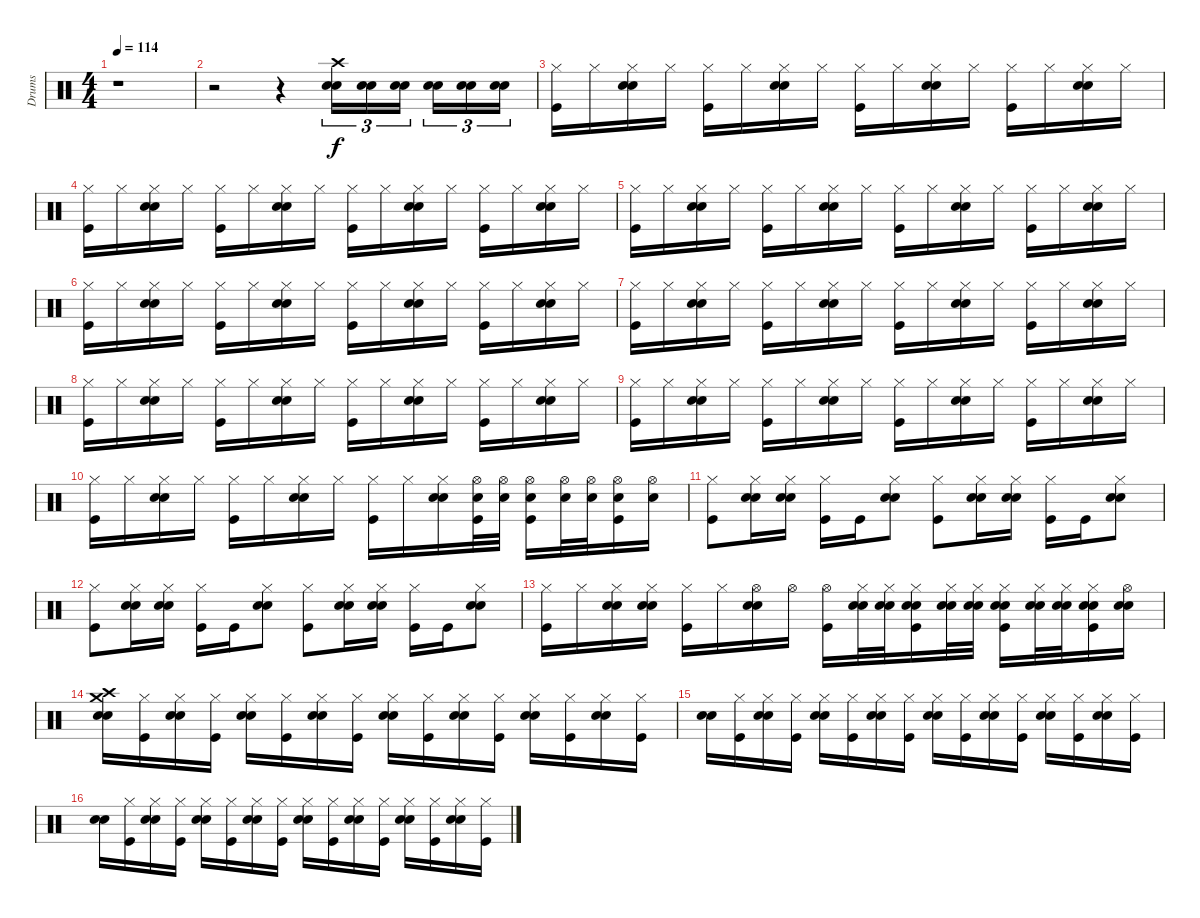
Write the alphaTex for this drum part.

\track ("Drums" "Drums") {instrument percussion}
\staff {score}
\articulation defaults
\ts (4 4)
\tempo 114
\clef neutral
\ks c
r.1{dy f} |
r.2 r.4 ("Crash high (hit)" "Electric Snare (hit)" "Snare (hit) 2").16{tu (3 2)} ("Electric Snare (hit)" "Snare (hit) 2").16{tu (3 2)} ("Electric Snare (hit)" "Snare (hit) 2").16{tu (3 2)} ("Electric Snare (hit)" "Snare (hit) 2").16{tu (3 2)} ("Electric Snare (hit)" "Snare (hit) 2").16{tu (3 2)} ("Electric Snare (hit)" "Snare (hit) 2").16{tu (3 2)} |
("Hi-Hat (closed)" "Kick (hit)").16 "Hi-Hat (closed)".16 ("Electric Snare (hit)" "Snare (hit) 2" "Hi-Hat (closed)").16 "Hi-Hat (closed)".16 ("Hi-Hat (closed)" "Kick (hit)").16 "Hi-Hat (closed)".16 ("Electric Snare (hit)" "Snare (hit) 2" "Hi-Hat (closed)").16 "Hi-Hat (closed)".16 ("Hi-Hat (closed)" "Kick (hit)").16 "Hi-Hat (closed)".16 ("Electric Snare (hit)" "Snare (hit) 2" "Hi-Hat (closed)").16 "Hi-Hat (closed)".16 ("Hi-Hat (closed)" "Kick (hit)").16 "Hi-Hat (closed)".16 ("Electric Snare (hit)" "Snare (hit) 2" "Hi-Hat (closed)").16 "Hi-Hat (closed)".16 |
("Hi-Hat (closed)" "Kick (hit)").16 "Hi-Hat (closed)".16 ("Electric Snare (hit)" "Snare (hit) 2" "Hi-Hat (closed)").16 "Hi-Hat (closed)".16 ("Hi-Hat (closed)" "Kick (hit)").16 "Hi-Hat (closed)".16 ("Electric Snare (hit)" "Snare (hit) 2" "Hi-Hat (closed)").16 "Hi-Hat (closed)".16 ("Hi-Hat (closed)" "Kick (hit)").16 "Hi-Hat (closed)".16 ("Electric Snare (hit)" "Snare (hit) 2" "Hi-Hat (closed)").16 "Hi-Hat (closed)".16 ("Hi-Hat (closed)" "Kick (hit)").16 "Hi-Hat (closed)".16 ("Electric Snare (hit)" "Snare (hit) 2" "Hi-Hat (closed)").16 "Hi-Hat (closed)".16 |
("Hi-Hat (closed)" "Kick (hit)").16 "Hi-Hat (closed)".16 ("Electric Snare (hit)" "Snare (hit) 2" "Hi-Hat (closed)").16 "Hi-Hat (closed)".16 ("Hi-Hat (closed)" "Kick (hit)").16 "Hi-Hat (closed)".16 ("Electric Snare (hit)" "Snare (hit) 2" "Hi-Hat (closed)").16 "Hi-Hat (closed)".16 ("Hi-Hat (closed)" "Kick (hit)").16 "Hi-Hat (closed)".16 ("Electric Snare (hit)" "Snare (hit) 2" "Hi-Hat (closed)").16 "Hi-Hat (closed)".16 ("Hi-Hat (closed)" "Kick (hit)").16 "Hi-Hat (closed)".16 ("Electric Snare (hit)" "Snare (hit) 2" "Hi-Hat (closed)").16 "Hi-Hat (closed)".16 |
("Hi-Hat (closed)" "Kick (hit)").16 "Hi-Hat (closed)".16 ("Electric Snare (hit)" "Snare (hit) 2" "Hi-Hat (closed)").16 "Hi-Hat (closed)".16 ("Hi-Hat (closed)" "Kick (hit)").16 "Hi-Hat (closed)".16 ("Electric Snare (hit)" "Snare (hit) 2" "Hi-Hat (closed)").16 "Hi-Hat (closed)".16 ("Hi-Hat (closed)" "Kick (hit)").16 "Hi-Hat (closed)".16 ("Electric Snare (hit)" "Snare (hit) 2" "Hi-Hat (closed)").16 "Hi-Hat (closed)".16 ("Hi-Hat (closed)" "Kick (hit)").16 "Hi-Hat (closed)".16 ("Electric Snare (hit)" "Snare (hit) 2" "Hi-Hat (closed)").16 "Hi-Hat (closed)".16 |
("Hi-Hat (closed)" "Kick (hit)").16 "Hi-Hat (closed)".16 ("Electric Snare (hit)" "Snare (hit) 2" "Hi-Hat (closed)").16 "Hi-Hat (closed)".16 ("Hi-Hat (closed)" "Kick (hit)").16 "Hi-Hat (closed)".16 ("Electric Snare (hit)" "Snare (hit) 2" "Hi-Hat (closed)").16 "Hi-Hat (closed)".16 ("Hi-Hat (closed)" "Kick (hit)").16 "Hi-Hat (closed)".16 ("Electric Snare (hit)" "Snare (hit) 2" "Hi-Hat (closed)").16 "Hi-Hat (closed)".16 ("Hi-Hat (closed)" "Kick (hit)").16 "Hi-Hat (closed)".16 ("Electric Snare (hit)" "Snare (hit) 2" "Hi-Hat (closed)").16 "Hi-Hat (closed)".16 |
("Hi-Hat (closed)" "Kick (hit)").16 "Hi-Hat (closed)".16 ("Electric Snare (hit)" "Snare (hit) 2" "Hi-Hat (closed)").16 "Hi-Hat (closed)".16 ("Hi-Hat (closed)" "Kick (hit)").16 "Hi-Hat (closed)".16 ("Electric Snare (hit)" "Snare (hit) 2" "Hi-Hat (closed)").16 "Hi-Hat (closed)".16 ("Hi-Hat (closed)" "Kick (hit)").16 "Hi-Hat (closed)".16 ("Electric Snare (hit)" "Snare (hit) 2" "Hi-Hat (closed)").16 "Hi-Hat (closed)".16 ("Hi-Hat (closed)" "Kick (hit)").16 "Hi-Hat (closed)".16 ("Electric Snare (hit)" "Snare (hit) 2" "Hi-Hat (closed)").16 "Hi-Hat (closed)".16 |
("Hi-Hat (closed)" "Kick (hit)").16 "Hi-Hat (closed)".16 ("Electric Snare (hit)" "Snare (hit) 2" "Hi-Hat (closed)").16 "Hi-Hat (closed)".16 ("Hi-Hat (closed)" "Kick (hit)").16 "Hi-Hat (closed)".16 ("Electric Snare (hit)" "Snare (hit) 2" "Hi-Hat (closed)").16 "Hi-Hat (closed)".16 ("Hi-Hat (closed)" "Kick (hit)").16 "Hi-Hat (closed)".16 ("Electric Snare (hit)" "Snare (hit) 2" "Hi-Hat (closed)").16 "Hi-Hat (closed)".16 ("Hi-Hat (closed)" "Kick (hit)").16 "Hi-Hat (closed)".16 ("Electric Snare (hit)" "Snare (hit) 2" "Hi-Hat (closed)").16 "Hi-Hat (closed)".16 |
("Hi-Hat (closed)" "Kick (hit)").16 "Hi-Hat (closed)".16 ("Electric Snare (hit)" "Snare (hit) 2" "Hi-Hat (closed)").16 "Hi-Hat (closed)".16 ("Hi-Hat (closed)" "Kick (hit)").16 "Hi-Hat (closed)".16 ("Electric Snare (hit)" "Snare (hit) 2" "Hi-Hat (closed)").16 "Hi-Hat (closed)".16 ("Hi-Hat (closed)" "Kick (hit)").16 "Hi-Hat (closed)".16 ("Electric Snare (hit)" "Snare (hit) 2" "Hi-Hat (closed)").16 ("Electric Snare (hit)" "Hi-Hat (open)" "Kick (hit)").32 ("Electric Snare (hit)" "Hi-Hat (open)").32 ("Electric Snare (hit)" "Hi-Hat (open)" "Kick (hit)").16 ("Electric Snare (hit)" "Hi-Hat (open)").32 ("Electric Snare (hit)" "Hi-Hat (open)").32 ("Electric Snare (hit)" "Hi-Hat (open)" "Kick (hit)").16 ("Electric Snare (hit)" "Hi-Hat (open)").16 |
("Hi-Hat (closed)" "Kick (hit)").8 ("Electric Snare (hit)" "Snare (hit) 2" "Hi-Hat (closed)").16 ("Electric Snare (hit)" "Snare (hit) 2" "Hi-Hat (closed)").16 ("Hi-Hat (closed)" "Kick (hit)").16 "Kick (hit)".16 ("Electric Snare (hit)" "Snare (hit) 2" "Hi-Hat (closed)").8 ("Hi-Hat (closed)" "Kick (hit)").8 ("Electric Snare (hit)" "Snare (hit) 2" "Hi-Hat (closed)").16 ("Electric Snare (hit)" "Snare (hit) 2" "Hi-Hat (closed)").16 ("Hi-Hat (closed)" "Kick (hit)").16 "Kick (hit)".16 ("Electric Snare (hit)" "Snare (hit) 2" "Hi-Hat (closed)").8 |
("Hi-Hat (closed)" "Kick (hit)").8 ("Electric Snare (hit)" "Snare (hit) 2" "Hi-Hat (closed)").16 ("Electric Snare (hit)" "Snare (hit) 2" "Hi-Hat (closed)").16 ("Hi-Hat (closed)" "Kick (hit)").16 "Kick (hit)".16 ("Electric Snare (hit)" "Snare (hit) 2" "Hi-Hat (closed)").8 ("Hi-Hat (closed)" "Kick (hit)").8 ("Electric Snare (hit)" "Snare (hit) 2" "Hi-Hat (closed)").16 ("Electric Snare (hit)" "Snare (hit) 2" "Hi-Hat (closed)").16 ("Hi-Hat (closed)" "Kick (hit)").16 "Kick (hit)".16 ("Electric Snare (hit)" "Snare (hit) 2" "Hi-Hat (closed)").8 |
("Hi-Hat (closed)" "Kick (hit)").16 "Hi-Hat (closed)".16 ("Electric Snare (hit)" "Snare (hit) 2" "Hi-Hat (closed)").16 ("Electric Snare (hit)" "Snare (hit) 2" "Hi-Hat (closed)").16 ("Hi-Hat (closed)" "Kick (hit)").16 "Hi-Hat (closed)".16 ("Electric Snare (hit)" "Snare (hit) 2" "Hi-Hat (open)").16 "Hi-Hat (open)".16 ("Hi-Hat (open)" "Kick (hit)").16 ("Electric Snare (hit)" "Snare (hit) 2" "Hi-Hat (closed)").32 ("Electric Snare (hit)" "Snare (hit) 2" "Hi-Hat (closed)").32 ("Electric Snare (hit)" "Snare (hit) 2" "Hi-Hat (closed)" "Kick (hit)").16 ("Electric Snare (hit)" "Snare (hit) 2" "Hi-Hat (closed)").32 ("Electric Snare (hit)" "Snare (hit) 2" "Hi-Hat (closed)").32 ("Electric Snare (hit)" "Snare (hit) 2" "Hi-Hat (closed)" "Kick (hit)").16 ("Electric Snare (hit)" "Snare (hit) 2" "Hi-Hat (closed)").32 ("Electric Snare (hit)" "Snare (hit) 2" "Hi-Hat (closed)").32 ("Electric Snare (hit)" "Snare (hit) 2" "Hi-Hat (closed)" "Kick (hit)").16 ("Electric Snare (hit)" "Snare (hit) 2" "Hi-Hat (open)").16 |
("Crash high (hit)" "Crash medium (hit)" "Electric Snare (hit)" "Snare (hit) 2").16 ("Hi-Hat (closed)" "Kick (hit)").16 ("Electric Snare (hit)" "Hi-Hat (closed)" "Snare (hit) 2").16 ("Hi-Hat (closed)" "Kick (hit)").16 ("Electric Snare (hit)" "Hi-Hat (closed)" "Snare (hit) 2").16 ("Hi-Hat (closed)" "Kick (hit)").16 ("Electric Snare (hit)" "Hi-Hat (closed)" "Snare (hit) 2").16 ("Hi-Hat (closed)" "Kick (hit)").16 ("Electric Snare (hit)" "Hi-Hat (closed)" "Snare (hit) 2").16 ("Hi-Hat (closed)" "Kick (hit)").16 ("Electric Snare (hit)" "Hi-Hat (closed)" "Snare (hit) 2").16 ("Hi-Hat (closed)" "Kick (hit)").16 ("Electric Snare (hit)" "Hi-Hat (closed)" "Snare (hit) 2").16 ("Hi-Hat (closed)" "Kick (hit)").16 ("Electric Snare (hit)" "Hi-Hat (closed)" "Snare (hit) 2").16 ("Hi-Hat (closed)" "Kick (hit)").16 |
("Electric Snare (hit)" "Snare (hit) 2").16 ("Hi-Hat (closed)" "Kick (hit)").16 ("Electric Snare (hit)" "Hi-Hat (closed)" "Snare (hit) 2").16 ("Hi-Hat (closed)" "Kick (hit)").16 ("Electric Snare (hit)" "Hi-Hat (closed)" "Snare (hit) 2").16 ("Hi-Hat (closed)" "Kick (hit)").16 ("Electric Snare (hit)" "Hi-Hat (closed)" "Snare (hit) 2").16 ("Hi-Hat (closed)" "Kick (hit)").16 ("Electric Snare (hit)" "Hi-Hat (closed)" "Snare (hit) 2").16 ("Hi-Hat (closed)" "Kick (hit)").16 ("Electric Snare (hit)" "Hi-Hat (closed)" "Snare (hit) 2").16 ("Hi-Hat (closed)" "Kick (hit)").16 ("Electric Snare (hit)" "Hi-Hat (closed)" "Snare (hit) 2").16 ("Hi-Hat (closed)" "Kick (hit)").16 ("Electric Snare (hit)" "Hi-Hat (closed)" "Snare (hit) 2").16 ("Hi-Hat (closed)" "Kick (hit)").16 |
("Electric Snare (hit)" "Snare (hit) 2").16 ("Hi-Hat (closed)" "Kick (hit)").16 ("Electric Snare (hit)" "Hi-Hat (closed)" "Snare (hit) 2").16 ("Hi-Hat (closed)" "Kick (hit)").16 ("Electric Snare (hit)" "Hi-Hat (closed)" "Snare (hit) 2").16 ("Hi-Hat (closed)" "Kick (hit)").16 ("Electric Snare (hit)" "Hi-Hat (closed)" "Snare (hit) 2").16 ("Hi-Hat (closed)" "Kick (hit)").16 ("Electric Snare (hit)" "Hi-Hat (closed)" "Snare (hit) 2").16 ("Hi-Hat (closed)" "Kick (hit)").16 ("Electric Snare (hit)" "Hi-Hat (closed)" "Snare (hit) 2").16 ("Hi-Hat (closed)" "Kick (hit)").16 ("Electric Snare (hit)" "Hi-Hat (closed)" "Snare (hit) 2").16 ("Hi-Hat (closed)" "Kick (hit)").16 ("Electric Snare (hit)" "Hi-Hat (closed)" "Snare (hit) 2").16 ("Hi-Hat (closed)" "Kick (hit)").16
